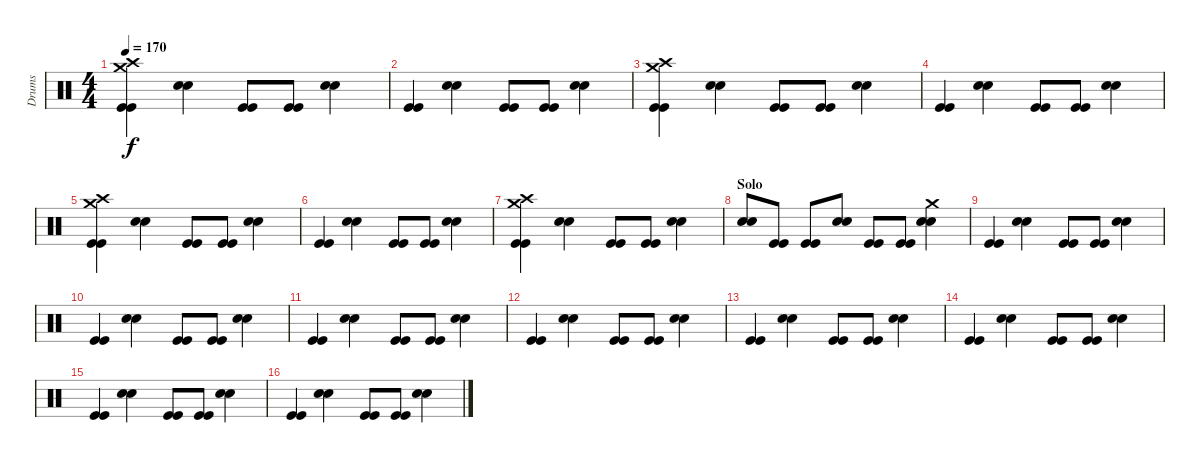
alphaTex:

\track ("Drums" "Drums") {instrument percussion}
\staff {score}
\articulation defaults
\ts (4 4)
\tempo 170
\clef neutral
\ks c
("Crash high (hit)" "Crash medium (hit)" "Kick (hit)" "Kick (hit)").4{dy f} ("Snare (hit) 2" "Snare (hit) 2").4 ("Kick (hit)" "Kick (hit)").8 ("Kick (hit)" "Kick (hit)").8 ("Snare (hit) 2" "Snare (hit) 2").4 |
("Kick (hit)" "Kick (hit)").4 ("Snare (hit) 2" "Snare (hit) 2").4 ("Kick (hit)" "Kick (hit)").8 ("Kick (hit)" "Kick (hit)").8 ("Snare (hit) 2" "Snare (hit) 2").4 |
("Crash high (hit)" "Crash medium (hit)" "Kick (hit)" "Kick (hit)").4 ("Snare (hit) 2" "Snare (hit) 2").4 ("Kick (hit)" "Kick (hit)").8 ("Kick (hit)" "Kick (hit)").8 ("Snare (hit) 2" "Snare (hit) 2").4 |
("Kick (hit)" "Kick (hit)").4 ("Snare (hit) 2" "Snare (hit) 2").4 ("Kick (hit)" "Kick (hit)").8 ("Kick (hit)" "Kick (hit)").8 ("Snare (hit) 2" "Snare (hit) 2").4 |
("Crash medium (hit)" "Crash high (hit)" "Kick (hit)" "Kick (hit)").4 ("Snare (hit) 2" "Snare (hit) 2").4 ("Kick (hit)" "Kick (hit)").8 ("Kick (hit)" "Kick (hit)").8 ("Snare (hit) 2" "Snare (hit) 2").4 |
("Kick (hit)" "Kick (hit)").4 ("Snare (hit) 2" "Snare (hit) 2").4 ("Kick (hit)" "Kick (hit)").8 ("Kick (hit)" "Kick (hit)").8 ("Snare (hit) 2" "Snare (hit) 2").4 |
("Crash medium (hit)" "Crash high (hit)" "Kick (hit)" "Kick (hit)").4 ("Snare (hit) 2" "Snare (hit) 2").4 ("Kick (hit)" "Kick (hit)").8 ("Kick (hit)" "Kick (hit)").8 ("Snare (hit) 2" "Snare (hit) 2").4 |
\section ("" "Solo")
("Snare (hit) 2" "Snare (hit) 2").8 ("Kick (hit)" "Kick (hit)").8 ("Kick (hit)" "Kick (hit)").8 ("Snare (hit) 2" "Snare (hit) 2").8 ("Kick (hit)" "Kick (hit)").8 ("Kick (hit)" "Kick (hit)").8 ("Crash medium (hit)" "Snare (hit) 2" "Snare (hit) 2").4 |
("Kick (hit)" "Kick (hit)").4 ("Snare (hit) 2" "Snare (hit) 2").4 ("Kick (hit)" "Kick (hit)").8 ("Kick (hit)" "Kick (hit)").8 ("Snare (hit) 2" "Snare (hit) 2").4 |
("Kick (hit)" "Kick (hit)").4 ("Snare (hit) 2" "Snare (hit) 2").4 ("Kick (hit)" "Kick (hit)").8 ("Kick (hit)" "Kick (hit)").8 ("Snare (hit) 2" "Snare (hit) 2").4 |
("Kick (hit)" "Kick (hit)").4 ("Snare (hit) 2" "Snare (hit) 2").4 ("Kick (hit)" "Kick (hit)").8 ("Kick (hit)" "Kick (hit)").8 ("Snare (hit) 2" "Snare (hit) 2").4 |
("Kick (hit)" "Kick (hit)").4 ("Snare (hit) 2" "Snare (hit) 2").4 ("Kick (hit)" "Kick (hit)").8 ("Kick (hit)" "Kick (hit)").8 ("Snare (hit) 2" "Snare (hit) 2").4 |
("Kick (hit)" "Kick (hit)").4 ("Snare (hit) 2" "Snare (hit) 2").4 ("Kick (hit)" "Kick (hit)").8 ("Kick (hit)" "Kick (hit)").8 ("Snare (hit) 2" "Snare (hit) 2").4 |
("Kick (hit)" "Kick (hit)").4 ("Snare (hit) 2" "Snare (hit) 2").4 ("Kick (hit)" "Kick (hit)").8 ("Kick (hit)" "Kick (hit)").8 ("Snare (hit) 2" "Snare (hit) 2").4 |
("Kick (hit)" "Kick (hit)").4 ("Snare (hit) 2" "Snare (hit) 2").4 ("Kick (hit)" "Kick (hit)").8 ("Kick (hit)" "Kick (hit)").8 ("Snare (hit) 2" "Snare (hit) 2").4 |
("Kick (hit)" "Kick (hit)").4 ("Snare (hit) 2" "Snare (hit) 2").4 ("Kick (hit)" "Kick (hit)").8 ("Kick (hit)" "Kick (hit)").8 ("Snare (hit) 2" "Snare (hit) 2").4
